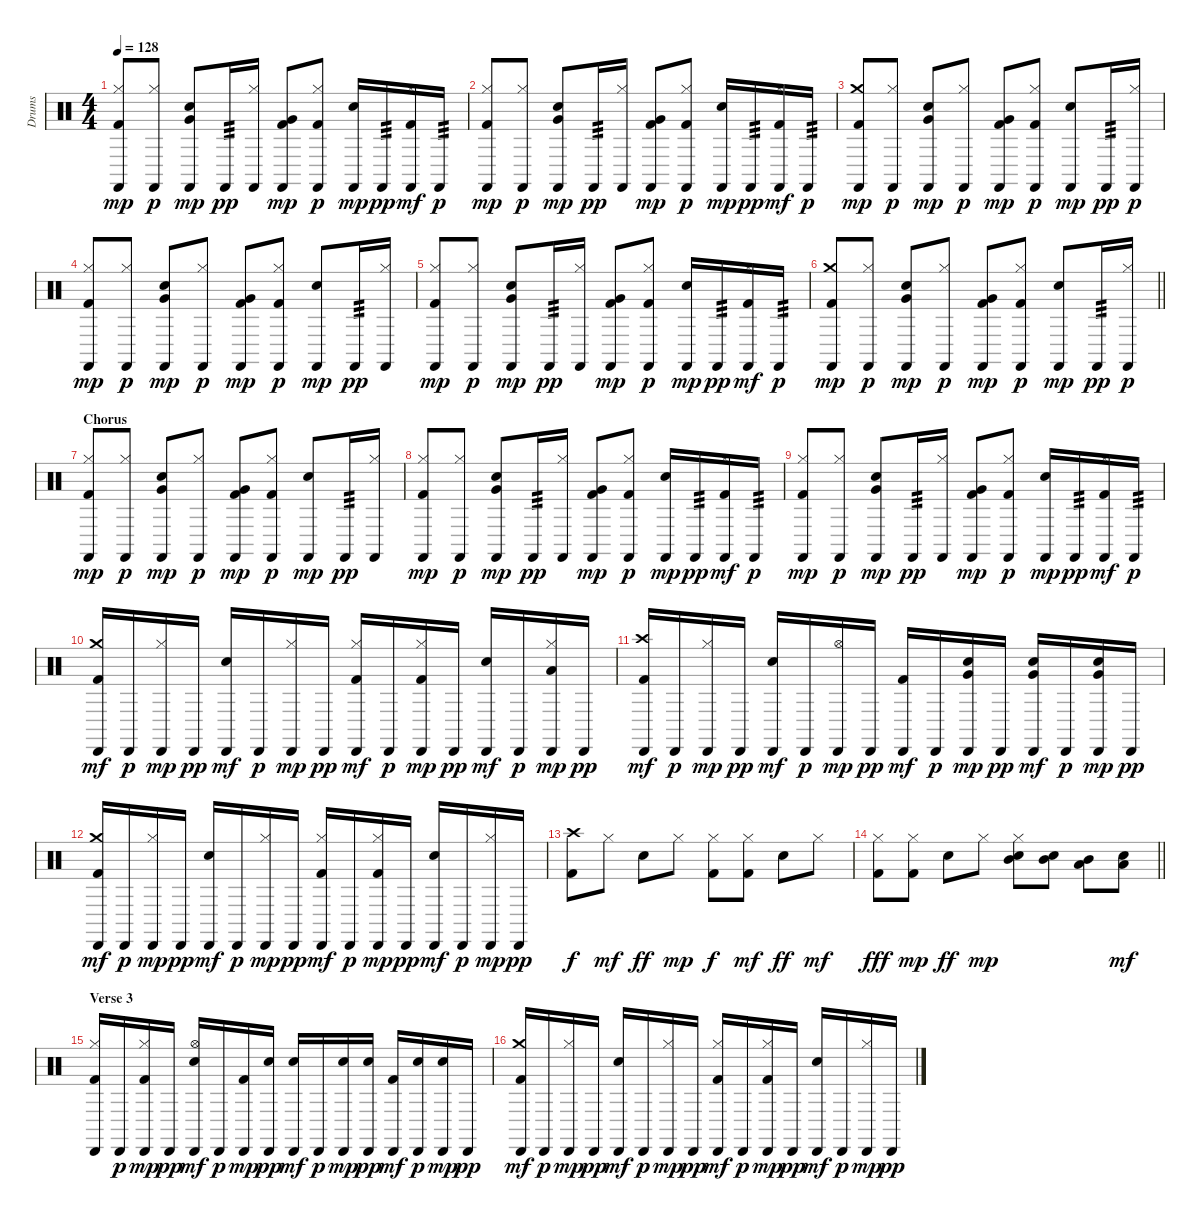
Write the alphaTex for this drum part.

\track ("Drums" "Drums") {instrument percussion}
\staff {score}
\articulation defaults
\ts (4 4)
\tempo 128
\clef neutral
\ks c
("Kick (hit) 2" "Hi-Hat (closed)" "Castanets (hit)").8{dy mp} ("Hi-Hat (closed)" "Castanets (hit)").8{dy p} ("Electric Snare (hit)" "Very Low Tom (hit)" "Castanets (hit)").8{dy mp} "Castanets (hit)".16{tp 3 dy pp} ("Hi-Hat (closed)" "Castanets (hit)").16 ("Kick (hit) 2" "Very Low Tom (hit)" "Castanets (hit)").8{dy mp} ("Kick (hit) 2" "Hi-Hat (closed)" "Castanets (hit)").8{dy p} ("Electric Snare (hit)" "Castanets (hit)").16{dy mp} "Castanets (hit)".16{tp 3 dy pp} ("Kick (hit) 2" "Hi-Hat (closed)" "Castanets (hit)").16{dy mf} "Castanets (hit)".16{tp 3 dy p} |
("Kick (hit) 2" "Hi-Hat (closed)" "Castanets (hit)").8{dy mp} ("Hi-Hat (closed)" "Castanets (hit)").8{dy p} ("Electric Snare (hit)" "Very Low Tom (hit)" "Castanets (hit)").8{dy mp} "Castanets (hit)".16{tp 3 dy pp} ("Hi-Hat (closed)" "Castanets (hit)").16 ("Kick (hit) 2" "Very Low Tom (hit)" "Castanets (hit)").8{dy mp} ("Kick (hit) 2" "Hi-Hat (closed)" "Castanets (hit)").8{dy p} ("Electric Snare (hit)" "Castanets (hit)").16{dy mp} "Castanets (hit)".16{tp 3 dy pp} ("Kick (hit) 2" "Hi-Hat (closed)" "Castanets (hit)").16{dy mf} "Castanets (hit)".16{tp 3 dy p} |
("Kick (hit) 2" "Crash medium (hit)" "Castanets (hit)").8{dy mp} ("Hi-Hat (closed)" "Castanets (hit)").8{dy p} ("Electric Snare (hit)" "Very Low Tom (hit)" "Castanets (hit)").8{dy mp} ("Hi-Hat (closed)" "Castanets (hit)").8{dy p} ("Kick (hit) 2" "Very Low Tom (hit)" "Castanets (hit)").8{dy mp} ("Kick (hit) 2" "Hi-Hat (closed)" "Castanets (hit)").8{dy p} ("Electric Snare (hit)" "Castanets (hit)").8{dy mp} "Castanets (hit)".16{tp 3 dy pp} ("Hi-Hat (closed)" "Castanets (hit)").16{dy p} |
("Kick (hit) 2" "Hi-Hat (closed)" "Castanets (hit)").8{dy mp} ("Hi-Hat (closed)" "Castanets (hit)").8{dy p} ("Electric Snare (hit)" "Very Low Tom (hit)" "Castanets (hit)").8{dy mp} ("Hi-Hat (closed)" "Castanets (hit)").8{dy p} ("Kick (hit) 2" "Very Low Tom (hit)" "Castanets (hit)").8{dy mp} ("Kick (hit) 2" "Hi-Hat (closed)" "Castanets (hit)").8{dy p} ("Electric Snare (hit)" "Castanets (hit)").8{dy mp} "Castanets (hit)".16{tp 3 dy pp} ("Hi-Hat (closed)" "Castanets (hit)").16 |
("Kick (hit) 2" "Hi-Hat (closed)" "Castanets (hit)").8{dy mp} ("Hi-Hat (closed)" "Castanets (hit)").8{dy p} ("Electric Snare (hit)" "Very Low Tom (hit)" "Castanets (hit)").8{dy mp} "Castanets (hit)".16{tp 3 dy pp} ("Hi-Hat (closed)" "Castanets (hit)").16 ("Kick (hit) 2" "Very Low Tom (hit)" "Castanets (hit)").8{dy mp} ("Kick (hit) 2" "Hi-Hat (closed)" "Castanets (hit)").8{dy p} ("Electric Snare (hit)" "Castanets (hit)").16{dy mp} "Castanets (hit)".16{tp 3 dy pp} ("Kick (hit) 2" "Hi-Hat (closed)" "Castanets (hit)").16{dy mf} "Castanets (hit)".16{tp 3 dy p} |
\barLineRight lightlight
("Kick (hit) 2" "Crash medium (hit)" "Castanets (hit)").8{dy mp} ("Hi-Hat (closed)" "Castanets (hit)").8{dy p} ("Electric Snare (hit)" "Very Low Tom (hit)" "Castanets (hit)").8{dy mp} ("Hi-Hat (closed)" "Castanets (hit)").8{dy p} ("Kick (hit) 2" "Very Low Tom (hit)" "Castanets (hit)").8{dy mp} ("Kick (hit) 2" "Hi-Hat (closed)" "Castanets (hit)").8{dy p} ("Electric Snare (hit)" "Castanets (hit)").8{dy mp} "Castanets (hit)".16{tp 3 dy pp} ("Hi-Hat (closed)" "Castanets (hit)").16{dy p} |
\section ("" "Chorus")
("Kick (hit) 2" "Hi-Hat (closed)" "Castanets (hit)").8{dy mp} ("Hi-Hat (closed)" "Castanets (hit)").8{dy p} ("Electric Snare (hit)" "Very Low Tom (hit)" "Castanets (hit)").8{dy mp} ("Hi-Hat (closed)" "Castanets (hit)").8{dy p} ("Kick (hit) 2" "Very Low Tom (hit)" "Castanets (hit)").8{dy mp} ("Kick (hit) 2" "Hi-Hat (closed)" "Castanets (hit)").8{dy p} ("Electric Snare (hit)" "Castanets (hit)").8{dy mp} "Castanets (hit)".16{tp 3 dy pp} ("Hi-Hat (closed)" "Castanets (hit)").16 |
("Kick (hit) 2" "Hi-Hat (closed)" "Castanets (hit)").8{dy mp} ("Hi-Hat (closed)" "Castanets (hit)").8{dy p} ("Electric Snare (hit)" "Very Low Tom (hit)" "Castanets (hit)").8{dy mp} "Castanets (hit)".16{tp 3 dy pp} ("Hi-Hat (closed)" "Castanets (hit)").16 ("Kick (hit) 2" "Very Low Tom (hit)" "Castanets (hit)").8{dy mp} ("Kick (hit) 2" "Hi-Hat (closed)" "Castanets (hit)").8{dy p} ("Electric Snare (hit)" "Castanets (hit)").16{dy mp} "Castanets (hit)".16{tp 3 dy pp} ("Kick (hit) 2" "Hi-Hat (closed)" "Castanets (hit)").16{dy mf} "Castanets (hit)".16{tp 3 dy p} |
("Kick (hit) 2" "Hi-Hat (closed)" "Castanets (hit)").8{dy mp} ("Hi-Hat (closed)" "Castanets (hit)").8{dy p} ("Electric Snare (hit)" "Very Low Tom (hit)" "Castanets (hit)").8{dy mp} "Castanets (hit)".16{tp 3 dy pp} ("Hi-Hat (closed)" "Castanets (hit)").16 ("Kick (hit) 2" "Very Low Tom (hit)" "Castanets (hit)").8{dy mp} ("Kick (hit) 2" "Hi-Hat (closed)" "Castanets (hit)").8{dy p} ("Electric Snare (hit)" "Castanets (hit)").16{dy mp} "Castanets (hit)".16{tp 3 dy pp} ("Kick (hit) 2" "Hi-Hat (closed)" "Castanets (hit)").16{dy mf} "Castanets (hit)".16{tp 3 dy p} |
("Kick (hit) 2" "Crash medium (hit)" "Cabasa (hit)").16{dy mf} "Cabasa (hit)".16{dy p} ("Hi-Hat (closed)" "Cabasa (hit)").16{dy mp} "Cabasa (hit)".16{dy pp} ("Electric Snare (hit)" "Cabasa (hit)").16{dy mf} "Cabasa (hit)".16{dy p} ("Hi-Hat (closed)" "Cabasa (hit)").16{dy mp} "Cabasa (hit)".16{dy pp} ("Kick (hit) 2" "Hi-Hat (closed)" "Cabasa (hit)").16{dy mf} "Cabasa (hit)".16{dy p} ("Kick (hit) 2" "Hi-Hat (closed)" "Cabasa (hit)").16{dy mp} "Cabasa (hit)".16{dy pp} ("Electric Snare (hit)" "Cabasa (hit)").16{dy mf} "Cabasa (hit)".16{dy p} ("Hi-Hat (closed)" "Low Tom (hit)" "Cabasa (hit)").16{dy mp} "Cabasa (hit)".16{dy pp} |
("Kick (hit) 2" "Crash high (hit)" "Cabasa (hit)").16{dy mf} "Cabasa (hit)".16{dy p} ("Hi-Hat (closed)" "Cabasa (hit)").16{dy mp} "Cabasa (hit)".16{dy pp} ("Electric Snare (hit)" "Cabasa (hit)").16{dy mf} "Cabasa (hit)".16{dy p} ("Hi-Hat (open)" "Cabasa (hit)").16{dy mp} "Cabasa (hit)".16{dy pp} ("Kick (hit) 2" "Cabasa (hit)").16{dy mf} "Cabasa (hit)".16{dy p} ("Electric Snare (hit)" "Very Low Tom (hit)" "Cabasa (hit)").16{dy mp} "Cabasa (hit)".16{dy pp} ("Electric Snare (hit)" "Very Low Tom (hit)" "Cabasa (hit)").16{dy mf} "Cabasa (hit)".16{dy p} ("Electric Snare (hit)" "Very Low Tom (hit)" "Cabasa (hit)").16{dy mp} "Cabasa (hit)".16{dy pp} |
("Kick (hit) 2" "Crash medium (hit)" "Cabasa (hit)").16{dy mf} "Cabasa (hit)".16{dy p} ("Hi-Hat (closed)" "Cabasa (hit)").16{dy mp} "Cabasa (hit)".16{dy pp} ("Electric Snare (hit)" "Cabasa (hit)").16{dy mf} "Cabasa (hit)".16{dy p} ("Hi-Hat (closed)" "Cabasa (hit)").16{dy mp} "Cabasa (hit)".16{dy pp} ("Kick (hit) 2" "Hi-Hat (closed)" "Cabasa (hit)").16{dy mf} "Cabasa (hit)".16{dy p} ("Kick (hit) 2" "Hi-Hat (closed)" "Cabasa (hit)").16{dy mp} "Cabasa (hit)".16{dy pp} ("Electric Snare (hit)" "Cabasa (hit)").16{dy mf} "Cabasa (hit)".16{dy p} ("Hi-Hat (closed)" "Cabasa (hit)").16{dy mp} "Cabasa (hit)".16{dy pp} |
("Kick (hit) 2" "Crash high (hit)").8{dy f} "Hi-Hat (closed)".8{dy mf} "Electric Snare (hit)".8{dy ff} "Hi-Hat (closed)".8{dy mp} ("Kick (hit) 2" "Hi-Hat (closed)").8{dy f} ("Kick (hit) 2" "Hi-Hat (closed)").8{dy mf} "Electric Snare (hit)".8{dy ff} "Hi-Hat (closed)".8{dy mf} |
\barLineRight lightlight
("Kick (hit) 2" "Hi-Hat (closed)").8{dy fff} ("Kick (hit) 2" "Hi-Hat (closed)").8{dy mp} "Electric Snare (hit)".8{dy ff} "Hi-Hat (closed)".8{dy mp} ("Electric Snare (hit)" "Hi-Hat (closed)" "Mid Tom (hit)").8 ("Electric Snare (hit)" "Mid Tom (hit)").8 ("Low Tom (hit)" "Mid Tom (hit)").8 ("Electric Snare (hit)" "Low Tom (hit)").8{dy mf} |
\section ("" "Verse 3")
("Kick (hit) 2" "Hi-Hat (closed)" "Cabasa (hit)").16 "Cabasa (hit)".16{dy p} ("Kick (hit) 2" "Hi-Hat (closed)" "Cabasa (hit)").16{dy mp} "Cabasa (hit)".16{dy pp} ("Electric Snare (hit)" "Hi-Hat (open)" "Cabasa (hit)").16{dy mf} "Cabasa (hit)".16{dy p} ("Kick (hit) 2" "Cabasa (hit)").16{dy mp} ("Electric Snare (hit)" "Cabasa (hit)").16{dy pp} ("Electric Snare (hit)" "Cabasa (hit)").16{dy mf} "Cabasa (hit)".16{dy p} ("Electric Snare (hit)" "Cabasa (hit)").16{dy mp} ("Electric Snare (hit)" "Cabasa (hit)").16{dy pp} ("Kick (hit) 2" "Cabasa (hit)").16{dy mf} ("Electric Snare (hit)" "Cabasa (hit)").16{dy p} ("Electric Snare (hit)" "Cabasa (hit)").16{dy mp} "Cabasa (hit)".16{dy pp} |
("Kick (hit) 2" "Crash medium (hit)" "Cabasa (hit)").16{dy mf} "Cabasa (hit)".16{dy p} ("Hi-Hat (closed)" "Cabasa (hit)").16{dy mp} "Cabasa (hit)".16{dy pp} ("Electric Snare (hit)" "Cabasa (hit)").16{dy mf} "Cabasa (hit)".16{dy p} ("Hi-Hat (closed)" "Cabasa (hit)").16{dy mp} "Cabasa (hit)".16{dy pp} ("Kick (hit) 2" "Hi-Hat (closed)" "Cabasa (hit)").16{dy mf} "Cabasa (hit)".16{dy p} ("Kick (hit) 2" "Hi-Hat (closed)" "Cabasa (hit)").16{dy mp} "Cabasa (hit)".16{dy pp} ("Electric Snare (hit)" "Cabasa (hit)").16{dy mf} "Cabasa (hit)".16{dy p} ("Hi-Hat (closed)" "Cabasa (hit)").16{dy mp} "Cabasa (hit)".16{dy pp}
